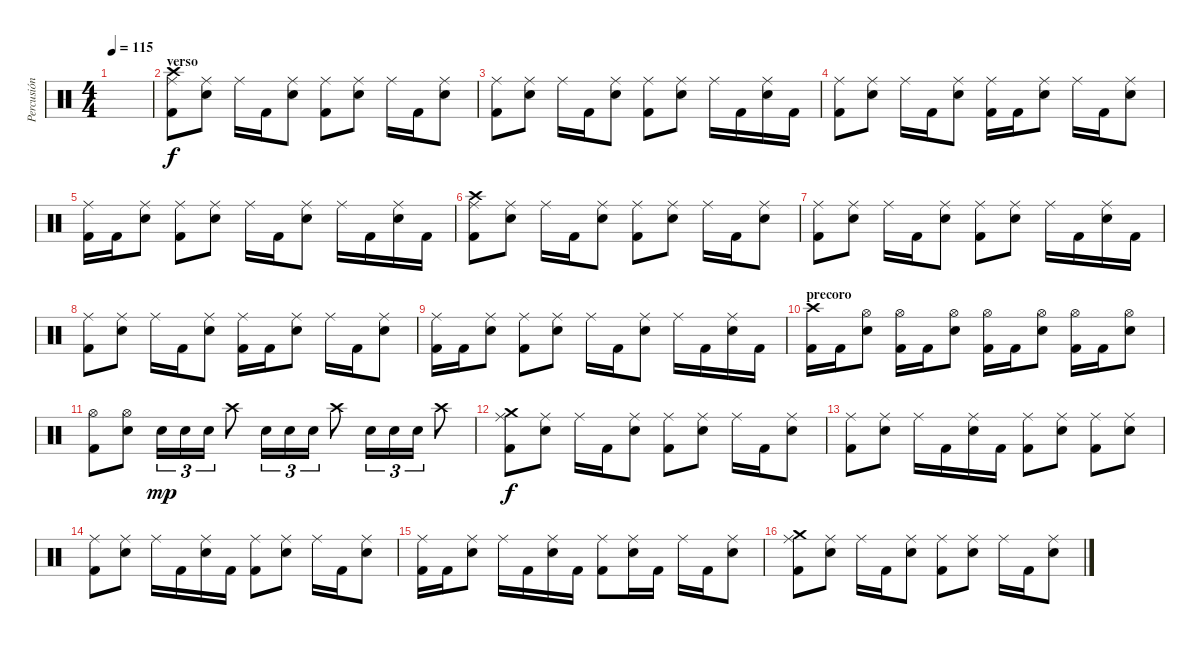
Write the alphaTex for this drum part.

\track ("Percusión" "Percusión") {instrument percussion}
\staff {score}
\articulation defaults
\ts (4 4)
\tempo 115
\clef neutral
\ks c
|
\section ("" "verso")
("Crash high (hit)" "Ride (middle)" "Kick (hit) 2").8 ("Ride (middle)" "Electric Snare (hit)").8 "Ride (middle)".16 "Kick (hit) 2".16 ("Ride (middle)" "Electric Snare (hit)").8 ("Ride (middle)" "Kick (hit) 2").8 ("Ride (middle)" "Electric Snare (hit)").8 "Ride (middle)".16 "Kick (hit) 2".16 ("Ride (middle)" "Electric Snare (hit)").8 |
("Ride (middle)" "Kick (hit) 2").8 ("Ride (middle)" "Electric Snare (hit)").8 "Ride (middle)".16 "Kick (hit) 2".16 ("Ride (middle)" "Electric Snare (hit)").8 ("Ride (middle)" "Kick (hit) 2").8 ("Ride (middle)" "Electric Snare (hit)").8 "Ride (middle)".16 "Kick (hit) 2".16 ("Ride (middle)" "Electric Snare (hit)").16 "Kick (hit) 2".16 |
("Ride (middle)" "Kick (hit) 2").8 ("Ride (middle)" "Electric Snare (hit)").8 "Ride (middle)".16 "Kick (hit) 2".16 ("Ride (middle)" "Electric Snare (hit)").8 ("Ride (middle)" "Kick (hit) 2").16 "Kick (hit) 2".16 ("Ride (middle)" "Electric Snare (hit)").8 "Ride (middle)".16 "Kick (hit) 2".16 ("Ride (middle)" "Electric Snare (hit)").8 |
("Ride (middle)" "Kick (hit) 2").16 "Kick (hit) 2".16 ("Ride (middle)" "Electric Snare (hit)").8 ("Ride (middle)" "Kick (hit) 2").8 ("Ride (middle)" "Electric Snare (hit)").8 "Ride (middle)".16 "Kick (hit) 2".16 ("Ride (middle)" "Electric Snare (hit)").8 "Ride (middle)".16 "Kick (hit) 2".16 ("Ride (middle)" "Electric Snare (hit)").16 "Kick (hit) 2".16 |
("Crash high (hit)" "Ride (middle)" "Kick (hit) 2").8 ("Ride (middle)" "Electric Snare (hit)").8 "Ride (middle)".16 "Kick (hit) 2".16 ("Ride (middle)" "Electric Snare (hit)").8 ("Ride (middle)" "Kick (hit) 2").8 ("Ride (middle)" "Electric Snare (hit)").8 "Ride (middle)".16 "Kick (hit) 2".16 ("Ride (middle)" "Electric Snare (hit)").8 |
("Ride (middle)" "Kick (hit) 2").8 ("Ride (middle)" "Electric Snare (hit)").8 "Ride (middle)".16 "Kick (hit) 2".16 ("Ride (middle)" "Electric Snare (hit)").8 ("Ride (middle)" "Kick (hit) 2").8 ("Ride (middle)" "Electric Snare (hit)").8 "Ride (middle)".16 "Kick (hit) 2".16 ("Ride (middle)" "Electric Snare (hit)").16 "Kick (hit) 2".16 |
("Ride (middle)" "Kick (hit) 2").8 ("Ride (middle)" "Electric Snare (hit)").8 "Ride (middle)".16 "Kick (hit) 2".16 ("Ride (middle)" "Electric Snare (hit)").8 ("Ride (middle)" "Kick (hit) 2").16 "Kick (hit) 2".16 ("Ride (middle)" "Electric Snare (hit)").8 "Ride (middle)".16 "Kick (hit) 2".16 ("Ride (middle)" "Electric Snare (hit)").8 |
("Ride (middle)" "Kick (hit) 2").16 "Kick (hit) 2".16 ("Ride (middle)" "Electric Snare (hit)").8 ("Ride (middle)" "Kick (hit) 2").8 ("Ride (middle)" "Electric Snare (hit)").8 "Ride (middle)".16 "Kick (hit) 2".16 ("Ride (middle)" "Electric Snare (hit)").8 "Ride (middle)".16 "Kick (hit) 2".16 ("Ride (middle)" "Electric Snare (hit)").16 "Kick (hit) 2".16 |
\section ("" "precoro")
("Crash high (hit)" "Kick (hit) 2").16 "Kick (hit) 2".16 ("Hi-Hat (open)" "Electric Snare (hit)").8 ("Hi-Hat (open)" "Kick (hit) 2").16 "Kick (hit) 2".16 ("Hi-Hat (open)" "Electric Snare (hit)").8 ("Hi-Hat (open)" "Kick (hit) 2").16 "Kick (hit) 2".16 ("Hi-Hat (open)" "Electric Snare (hit)").8 ("Hi-Hat (open)" "Kick (hit) 2").16 "Kick (hit) 2".16 ("Hi-Hat (open)" "Electric Snare (hit)").8 |
("Hi-Hat (open)" "Kick (hit) 2").8 ("Hi-Hat (open)" "Electric Snare (hit)").8 "Electric Snare (hit)".16{tu (3 2) dy mp} "Electric Snare (hit)".16{tu (3 2)} "Electric Snare (hit)".16{tu (3 2)} "Crash high (hit)".8 "Electric Snare (hit)".16{tu (3 2)} "Electric Snare (hit)".16{tu (3 2)} "Electric Snare (hit)".16{tu (3 2)} "Crash high (hit)".8 "Electric Snare (hit)".16{tu (3 2)} "Electric Snare (hit)".16{tu (3 2)} "Electric Snare (hit)".16{tu (3 2)} "Crash high (hit)".8 |
("Crash medium (hit)" "Ride (middle)" "Kick (hit) 2").8{dy f} ("Ride (middle)" "Electric Snare (hit)").8 "Ride (middle)".16 "Kick (hit) 2".16 ("Ride (middle)" "Electric Snare (hit)").8 ("Ride (middle)" "Kick (hit) 2").8 ("Ride (middle)" "Electric Snare (hit)").8 "Ride (middle)".16 "Kick (hit) 2".16 ("Ride (middle)" "Electric Snare (hit)").8 |
("Ride (middle)" "Kick (hit) 2").8 ("Ride (middle)" "Electric Snare (hit)").8 "Ride (middle)".16 "Kick (hit) 2".16 ("Ride (middle)" "Electric Snare (hit)").16 "Kick (hit) 2".16 ("Ride (middle)" "Kick (hit) 2").8 ("Ride (middle)" "Electric Snare (hit)").8 ("Ride (middle)" "Kick (hit) 2").8 ("Ride (middle)" "Electric Snare (hit)").8 |
("Ride (middle)" "Kick (hit) 2").8 ("Ride (middle)" "Electric Snare (hit)").8 "Ride (middle)".16 "Kick (hit) 2".16 ("Ride (middle)" "Electric Snare (hit)").16 "Kick (hit) 2".16 ("Ride (middle)" "Kick (hit) 2").8 ("Ride (middle)" "Electric Snare (hit)").8 "Ride (middle)".16 "Kick (hit) 2".16 ("Ride (middle)" "Electric Snare (hit)").8 |
("Ride (middle)" "Kick (hit) 2").16 "Kick (hit) 2".16 ("Ride (middle)" "Electric Snare (hit)").8 "Ride (middle)".16 "Kick (hit) 2".16 ("Ride (middle)" "Electric Snare (hit)").16 "Kick (hit) 2".16 ("Ride (middle)" "Kick (hit) 2").8 ("Ride (middle)" "Electric Snare (hit)").16 "Kick (hit) 2".16 "Ride (middle)".16 "Kick (hit) 2".16 ("Ride (middle)" "Electric Snare (hit)").8 |
("Crash medium (hit)" "Ride (middle)" "Kick (hit) 2").8 ("Ride (middle)" "Electric Snare (hit)").8 "Ride (middle)".16 "Kick (hit) 2".16 ("Ride (middle)" "Electric Snare (hit)").8 ("Ride (middle)" "Kick (hit) 2").8 ("Ride (middle)" "Electric Snare (hit)").8 "Ride (middle)".16 "Kick (hit) 2".16 ("Ride (middle)" "Electric Snare (hit)").8
